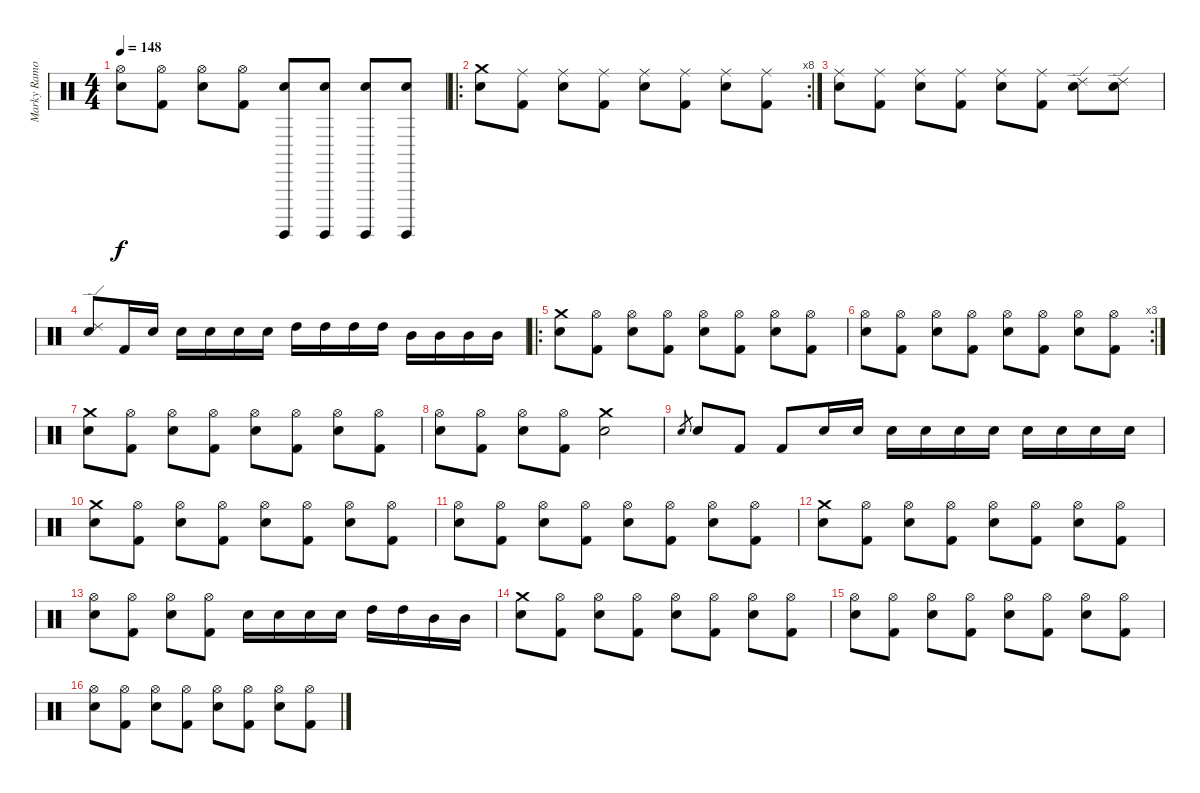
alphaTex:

\track ("Marky Ramone" "Marky Ramo") {instrument percussion}
\staff {score}
\articulation defaults
\ts (4 4)
\tempo 148
\clef neutral
\ks c
("Hi-Hat (open)" "Snare (hit) 2").8{dy f} ("Hi-Hat (open)" "Kick (hit) 2").8 ("Hi-Hat (open)" "Snare (hit) 2").8 ("Hi-Hat (open)" "Kick (hit) 2").8 ("Surdo (hit)" "Snare (hit) 2").8 ("Surdo (hit)" "Snare (hit) 2").8 ("Surdo (hit)" "Snare (hit) 2").8 ("Surdo (hit)" "Snare (hit) 2").8 |
\ro
\rc 8
("Crash medium (hit)" "Snare (hit) 2").8 ("Ride (middle)" "Kick (hit) 2").8 ("Ride (middle)" "Snare (hit) 2").8 ("Ride (middle)" "Kick (hit) 2").8 ("Ride (middle)" "Snare (hit) 2").8 ("Ride (middle)" "Kick (hit) 2").8 ("Ride (middle)" "Snare (hit) 2").8 ("Ride (middle)" "Kick (hit) 2").8 |
("Ride (middle)" "Snare (hit) 2").8 ("Ride (middle)" "Kick (hit) 2").8 ("Ride (middle)" "Snare (hit) 2").8 ("Ride (middle)" "Kick (hit) 2").8 ("Ride (middle)" "Snare (hit) 2").8 ("Ride (middle)" "Kick (hit) 2").8 ("Ride (edge) 2" "Snare (hit) 2").8 ("Ride (edge) 2" "Snare (hit) 2").8 |
("Ride (edge) 2" "Snare (hit) 2").8 "Kick (hit) 2".16 "Snare (hit) 2".16 "Snare (hit) 2".16 "Snare (hit) 2".16 "Snare (hit) 2".16 "Snare (hit) 2".16 "High Tom (hit)".16 "High Tom (hit)".16 "High Tom (hit)".16 "High Tom (hit)".16 "Mid Tom (hit)".16 "Mid Tom (hit)".16 "Mid Tom (hit)".16 "Mid Tom (hit)".16 |
\ro
("Crash medium (hit)" "Snare (hit) 2").8 ("Hi-Hat (open)" "Kick (hit) 2").8 ("Hi-Hat (open)" "Snare (hit) 2").8 ("Hi-Hat (open)" "Kick (hit) 2").8 ("Hi-Hat (open)" "Snare (hit) 2").8 ("Hi-Hat (open)" "Kick (hit) 2").8 ("Hi-Hat (open)" "Snare (hit) 2").8 ("Hi-Hat (open)" "Kick (hit) 2").8 |
\rc 3
("Hi-Hat (open)" "Snare (hit) 2").8 ("Hi-Hat (open)" "Kick (hit) 2").8 ("Hi-Hat (open)" "Snare (hit) 2").8 ("Hi-Hat (open)" "Kick (hit) 2").8 ("Hi-Hat (open)" "Snare (hit) 2").8 ("Hi-Hat (open)" "Kick (hit) 2").8 ("Hi-Hat (open)" "Snare (hit) 2").8 ("Hi-Hat (open)" "Kick (hit) 2").8 |
("Crash medium (hit)" "Snare (hit) 2").8 ("Hi-Hat (open)" "Kick (hit) 2").8 ("Hi-Hat (open)" "Snare (hit) 2").8 ("Hi-Hat (open)" "Kick (hit) 2").8 ("Hi-Hat (open)" "Snare (hit) 2").8 ("Hi-Hat (open)" "Kick (hit) 2").8 ("Hi-Hat (open)" "Snare (hit) 2").8 ("Hi-Hat (open)" "Kick (hit) 2").8 |
("Hi-Hat (open)" "Snare (hit) 2").8 ("Hi-Hat (open)" "Kick (hit) 2").8 ("Hi-Hat (open)" "Snare (hit) 2").8 ("Hi-Hat (open)" "Kick (hit) 2").8 ("Crash medium (hit)" "Snare (hit) 2").2 |
"Snare (hit) 2".8{gr} "Snare (hit) 2".8 "Kick (hit) 2".8 "Kick (hit) 2".8 "Snare (hit) 2".16 "Snare (hit) 2".16 "Snare (hit) 2".16 "Snare (hit) 2".16 "Snare (hit) 2".16 "Snare (hit) 2".16 "Snare (hit) 2".16 "Snare (hit) 2".16 "Snare (hit) 2".16 "Snare (hit) 2".16 |
("Crash medium (hit)" "Snare (hit) 2").8 ("Hi-Hat (open)" "Kick (hit) 2").8 ("Hi-Hat (open)" "Snare (hit) 2").8 ("Hi-Hat (open)" "Kick (hit) 2").8 ("Hi-Hat (open)" "Snare (hit) 2").8 ("Hi-Hat (open)" "Kick (hit) 2").8 ("Hi-Hat (open)" "Snare (hit) 2").8 ("Hi-Hat (open)" "Kick (hit) 2").8 |
("Hi-Hat (open)" "Snare (hit) 2").8 ("Hi-Hat (open)" "Kick (hit) 2").8 ("Hi-Hat (open)" "Snare (hit) 2").8 ("Hi-Hat (open)" "Kick (hit) 2").8 ("Hi-Hat (open)" "Snare (hit) 2").8 ("Hi-Hat (open)" "Kick (hit) 2").8 ("Hi-Hat (open)" "Snare (hit) 2").8 ("Hi-Hat (open)" "Kick (hit) 2").8 |
("Crash medium (hit)" "Snare (hit) 2").8 ("Hi-Hat (open)" "Kick (hit) 2").8 ("Hi-Hat (open)" "Snare (hit) 2").8 ("Hi-Hat (open)" "Kick (hit) 2").8 ("Hi-Hat (open)" "Snare (hit) 2").8 ("Hi-Hat (open)" "Kick (hit) 2").8 ("Hi-Hat (open)" "Snare (hit) 2").8 ("Hi-Hat (open)" "Kick (hit) 2").8 |
("Hi-Hat (open)" "Snare (hit) 2").8 ("Hi-Hat (open)" "Kick (hit) 2").8 ("Hi-Hat (open)" "Snare (hit) 2").8 ("Hi-Hat (open)" "Kick (hit) 2").8 "Snare (hit) 2".16 "Snare (hit) 2".16 "Snare (hit) 2".16 "Snare (hit) 2".16 "High Tom (hit)".16 "High Tom (hit)".16 "Mid Tom (hit)".16 "Mid Tom (hit)".16 |
("Crash medium (hit)" "Snare (hit) 2").8 ("Hi-Hat (open)" "Kick (hit) 2").8 ("Hi-Hat (open)" "Snare (hit) 2").8 ("Hi-Hat (open)" "Kick (hit) 2").8 ("Hi-Hat (open)" "Snare (hit) 2").8 ("Hi-Hat (open)" "Kick (hit) 2").8 ("Hi-Hat (open)" "Snare (hit) 2").8 ("Hi-Hat (open)" "Kick (hit) 2").8 |
("Hi-Hat (open)" "Snare (hit) 2").8 ("Hi-Hat (open)" "Kick (hit) 2").8 ("Hi-Hat (open)" "Snare (hit) 2").8 ("Hi-Hat (open)" "Kick (hit) 2").8 ("Hi-Hat (open)" "Snare (hit) 2").8 ("Hi-Hat (open)" "Kick (hit) 2").8 ("Hi-Hat (open)" "Snare (hit) 2").8 ("Hi-Hat (open)" "Kick (hit) 2").8 |
("Hi-Hat (open)" "Snare (hit) 2").8 ("Hi-Hat (open)" "Kick (hit) 2").8 ("Hi-Hat (open)" "Snare (hit) 2").8 ("Hi-Hat (open)" "Kick (hit) 2").8 ("Hi-Hat (open)" "Snare (hit) 2").8 ("Hi-Hat (open)" "Kick (hit) 2").8 ("Hi-Hat (open)" "Snare (hit) 2").8 ("Hi-Hat (open)" "Kick (hit) 2").8
